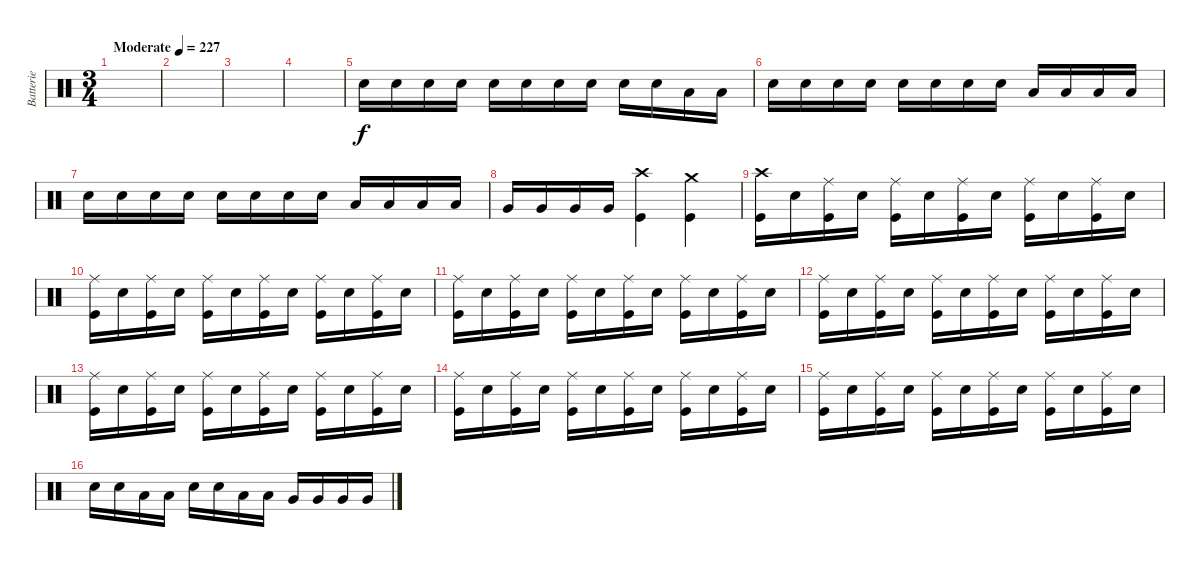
\track ("Batterie" "Batterie") {instrument percussion}
\staff {score}
\articulation defaults
\ts (3 4)
\tempo (227 "Moderate")
\clef neutral
\ks c
|
|
|
|
"Electric Snare (hit)".16 "Electric Snare (hit)".16 "Electric Snare (hit)".16 "Electric Snare (hit)".16 "Electric Snare (hit)".16 "Electric Snare (hit)".16 "Electric Snare (hit)".16 "Electric Snare (hit)".16 "Electric Snare (hit)".16 "Electric Snare (hit)".16 "Low Tom (hit)".16 "Low Tom (hit)".16 |
"Electric Snare (hit)".16 "Electric Snare (hit)".16 "Electric Snare (hit)".16 "Electric Snare (hit)".16 "Electric Snare (hit)".16 "Electric Snare (hit)".16 "Electric Snare (hit)".16 "Electric Snare (hit)".16 "Low Tom (hit)".16 "Low Tom (hit)".16 "Low Tom (hit)".16 "Low Tom (hit)".16 |
"Electric Snare (hit)".16 "Electric Snare (hit)".16 "Electric Snare (hit)".16 "Electric Snare (hit)".16 "Electric Snare (hit)".16 "Electric Snare (hit)".16 "Electric Snare (hit)".16 "Electric Snare (hit)".16 "Low Tom (hit)".16 "Low Tom (hit)".16 "Low Tom (hit)".16 "Low Tom (hit)".16 |
"Very Low Tom (hit)".16 "Very Low Tom (hit)".16 "Very Low Tom (hit)".16 "Very Low Tom (hit)".16 ("Crash high (hit)" "Kick (hit)").4 ("Crash medium (hit)" "Kick (hit)").4 |
("Crash high (hit)" "Kick (hit)").16 "Electric Snare (hit)".16 ("Ride (middle)" "Kick (hit)").16 "Electric Snare (hit)".16 ("Ride (middle)" "Kick (hit)").16 "Electric Snare (hit)".16 ("Ride (middle)" "Kick (hit)").16 "Electric Snare (hit)".16 ("Ride (middle)" "Kick (hit)").16 "Electric Snare (hit)".16 ("Ride (middle)" "Kick (hit)").16 "Electric Snare (hit)".16 |
("Ride (middle)" "Kick (hit)").16 "Electric Snare (hit)".16 ("Ride (middle)" "Kick (hit)").16 "Electric Snare (hit)".16 ("Ride (middle)" "Kick (hit)").16 "Electric Snare (hit)".16 ("Ride (middle)" "Kick (hit)").16 "Electric Snare (hit)".16 ("Ride (middle)" "Kick (hit)").16 "Electric Snare (hit)".16 ("Ride (middle)" "Kick (hit)").16 "Electric Snare (hit)".16 |
("Ride (middle)" "Kick (hit)").16 "Electric Snare (hit)".16 ("Ride (middle)" "Kick (hit)").16 "Electric Snare (hit)".16 ("Ride (middle)" "Kick (hit)").16 "Electric Snare (hit)".16 ("Ride (middle)" "Kick (hit)").16 "Electric Snare (hit)".16 ("Ride (middle)" "Kick (hit)").16 "Electric Snare (hit)".16 ("Ride (middle)" "Kick (hit)").16 "Electric Snare (hit)".16 |
("Ride (middle)" "Kick (hit)").16 "Electric Snare (hit)".16 ("Ride (middle)" "Kick (hit)").16 "Electric Snare (hit)".16 ("Ride (middle)" "Kick (hit)").16 "Electric Snare (hit)".16 ("Ride (middle)" "Kick (hit)").16 "Electric Snare (hit)".16 ("Ride (middle)" "Kick (hit)").16 "Electric Snare (hit)".16 ("Ride (middle)" "Kick (hit)").16 "Electric Snare (hit)".16 |
("Ride (middle)" "Kick (hit)").16 "Electric Snare (hit)".16 ("Ride (middle)" "Kick (hit)").16 "Electric Snare (hit)".16 ("Ride (middle)" "Kick (hit)").16 "Electric Snare (hit)".16 ("Ride (middle)" "Kick (hit)").16 "Electric Snare (hit)".16 ("Ride (middle)" "Kick (hit)").16 "Electric Snare (hit)".16 ("Ride (middle)" "Kick (hit)").16 "Electric Snare (hit)".16 |
("Ride (middle)" "Kick (hit)").16 "Electric Snare (hit)".16 ("Ride (middle)" "Kick (hit)").16 "Electric Snare (hit)".16 ("Ride (middle)" "Kick (hit)").16 "Electric Snare (hit)".16 ("Ride (middle)" "Kick (hit)").16 "Electric Snare (hit)".16 ("Ride (middle)" "Kick (hit)").16 "Electric Snare (hit)".16 ("Ride (middle)" "Kick (hit)").16 "Electric Snare (hit)".16 |
("Ride (middle)" "Kick (hit)").16 "Electric Snare (hit)".16 ("Ride (middle)" "Kick (hit)").16 "Electric Snare (hit)".16 ("Ride (middle)" "Kick (hit)").16 "Electric Snare (hit)".16 ("Ride (middle)" "Kick (hit)").16 "Electric Snare (hit)".16 ("Ride (middle)" "Kick (hit)").16 "Electric Snare (hit)".16 ("Ride (middle)" "Kick (hit)").16 "Electric Snare (hit)".16 |
"Electric Snare (hit)".16 "Electric Snare (hit)".16 "Low Tom (hit)".16 "Low Tom (hit)".16 "Electric Snare (hit)".16 "Electric Snare (hit)".16 "Low Tom (hit)".16 "Low Tom (hit)".16 "Very Low Tom (hit)".16 "Very Low Tom (hit)".16 "Very Low Tom (hit)".16 "Very Low Tom (hit)".16
